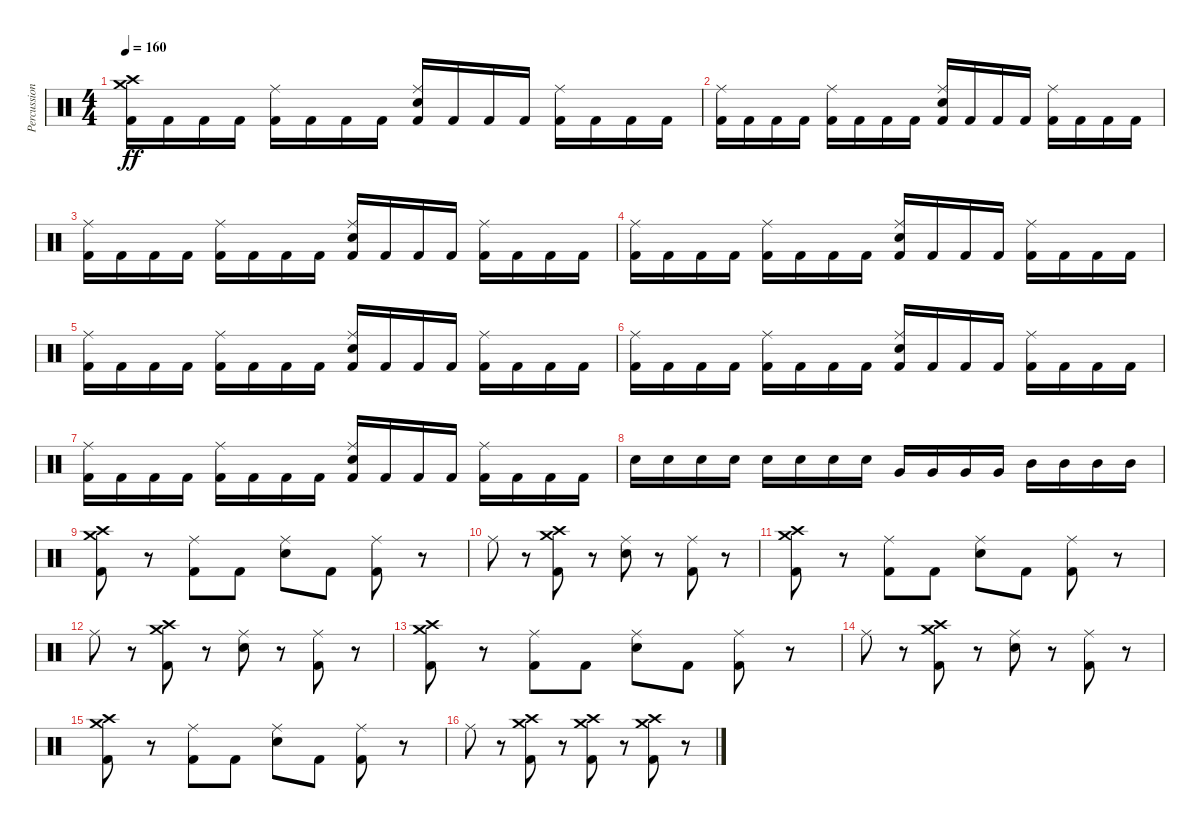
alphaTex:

\track ("Percussion" "Percussion") {instrument percussion}
\staff {score}
\articulation defaults
\ts (4 4)
\tempo 160
\clef neutral
\ks c
("Kick (hit) 2" "Crash high (hit)" "Crash medium (hit)").16{dy ff} "Kick (hit) 2".16 "Kick (hit) 2".16 "Kick (hit) 2".16 ("Kick (hit) 2" "Ride (middle)").16 "Kick (hit) 2".16 "Kick (hit) 2".16 "Kick (hit) 2".16 ("Kick (hit) 2" "Electric Snare (hit)" "Ride (middle)").16 "Kick (hit) 2".16 "Kick (hit) 2".16 "Kick (hit) 2".16 ("Kick (hit) 2" "Ride (middle)").16 "Kick (hit) 2".16 "Kick (hit) 2".16 "Kick (hit) 2".16 |
("Kick (hit) 2" "Ride (middle)").16 "Kick (hit) 2".16 "Kick (hit) 2".16 "Kick (hit) 2".16 ("Kick (hit) 2" "Ride (middle)").16 "Kick (hit) 2".16 "Kick (hit) 2".16 "Kick (hit) 2".16 ("Kick (hit) 2" "Electric Snare (hit)" "Ride (middle)").16 "Kick (hit) 2".16 "Kick (hit) 2".16 "Kick (hit) 2".16 ("Kick (hit) 2" "Ride (middle)").16 "Kick (hit) 2".16 "Kick (hit) 2".16 "Kick (hit) 2".16 |
("Kick (hit) 2" "Ride (middle)").16 "Kick (hit) 2".16 "Kick (hit) 2".16 "Kick (hit) 2".16 ("Kick (hit) 2" "Ride (middle)").16 "Kick (hit) 2".16 "Kick (hit) 2".16 "Kick (hit) 2".16 ("Kick (hit) 2" "Electric Snare (hit)" "Ride (middle)").16 "Kick (hit) 2".16 "Kick (hit) 2".16 "Kick (hit) 2".16 ("Kick (hit) 2" "Ride (middle)").16 "Kick (hit) 2".16 "Kick (hit) 2".16 "Kick (hit) 2".16 |
("Kick (hit) 2" "Ride (middle)").16 "Kick (hit) 2".16 "Kick (hit) 2".16 "Kick (hit) 2".16 ("Kick (hit) 2" "Ride (middle)").16 "Kick (hit) 2".16 "Kick (hit) 2".16 "Kick (hit) 2".16 ("Kick (hit) 2" "Electric Snare (hit)" "Ride (middle)").16 "Kick (hit) 2".16 "Kick (hit) 2".16 "Kick (hit) 2".16 ("Kick (hit) 2" "Ride (middle)").16 "Kick (hit) 2".16 "Kick (hit) 2".16 "Kick (hit) 2".16 |
("Kick (hit) 2" "Ride (middle)").16 "Kick (hit) 2".16 "Kick (hit) 2".16 "Kick (hit) 2".16 ("Kick (hit) 2" "Ride (middle)").16 "Kick (hit) 2".16 "Kick (hit) 2".16 "Kick (hit) 2".16 ("Kick (hit) 2" "Electric Snare (hit)" "Ride (middle)").16 "Kick (hit) 2".16 "Kick (hit) 2".16 "Kick (hit) 2".16 ("Kick (hit) 2" "Ride (middle)").16 "Kick (hit) 2".16 "Kick (hit) 2".16 "Kick (hit) 2".16 |
("Kick (hit) 2" "Ride (middle)").16 "Kick (hit) 2".16 "Kick (hit) 2".16 "Kick (hit) 2".16 ("Kick (hit) 2" "Ride (middle)").16 "Kick (hit) 2".16 "Kick (hit) 2".16 "Kick (hit) 2".16 ("Kick (hit) 2" "Electric Snare (hit)" "Ride (middle)").16 "Kick (hit) 2".16 "Kick (hit) 2".16 "Kick (hit) 2".16 ("Kick (hit) 2" "Ride (middle)").16 "Kick (hit) 2".16 "Kick (hit) 2".16 "Kick (hit) 2".16 |
("Kick (hit) 2" "Ride (middle)").16 "Kick (hit) 2".16 "Kick (hit) 2".16 "Kick (hit) 2".16 ("Kick (hit) 2" "Ride (middle)").16 "Kick (hit) 2".16 "Kick (hit) 2".16 "Kick (hit) 2".16 ("Kick (hit) 2" "Electric Snare (hit)" "Ride (middle)").16 "Kick (hit) 2".16 "Kick (hit) 2".16 "Kick (hit) 2".16 ("Kick (hit) 2" "Ride (middle)").16 "Kick (hit) 2".16 "Kick (hit) 2".16 "Kick (hit) 2".16 |
"Electric Snare (hit)".16 "Electric Snare (hit)".16 "Electric Snare (hit)".16 "Electric Snare (hit)".16 "Electric Snare (hit)".16 "Electric Snare (hit)".16 "Electric Snare (hit)".16 "Electric Snare (hit)".16 "Very Low Tom (hit)".16 "Very Low Tom (hit)".16 "Very Low Tom (hit)".16 "Very Low Tom (hit)".16 "Mid Tom (hit)".16 "Mid Tom (hit)".16 "Mid Tom (hit)".16 "Mid Tom (hit)".16 |
("Kick (hit) 2" "Crash high (hit)" "Crash medium (hit)").8 r.8 ("Kick (hit) 2" "Ride (middle)").8 "Kick (hit) 2".8 ("Electric Snare (hit)" "Ride (middle)").8 "Kick (hit) 2".8 ("Kick (hit) 2" "Ride (middle)").8 r.8 |
"Ride (middle)".8 r.8 ("Kick (hit) 2" "Crash high (hit)" "Crash medium (hit)").8 r.8 ("Electric Snare (hit)" "Ride (middle)").8 r.8 ("Kick (hit) 2" "Ride (middle)").8 r.8 |
("Kick (hit) 2" "Crash high (hit)" "Crash medium (hit)").8 r.8 ("Kick (hit) 2" "Ride (middle)").8 "Kick (hit) 2".8 ("Electric Snare (hit)" "Ride (middle)").8 "Kick (hit) 2".8 ("Kick (hit) 2" "Ride (middle)").8 r.8 |
"Ride (middle)".8 r.8 ("Kick (hit) 2" "Crash high (hit)" "Crash medium (hit)").8 r.8 ("Electric Snare (hit)" "Ride (middle)").8 r.8 ("Kick (hit) 2" "Ride (middle)").8 r.8 |
("Kick (hit) 2" "Crash high (hit)" "Crash medium (hit)").8 r.8 ("Kick (hit) 2" "Ride (middle)").8 "Kick (hit) 2".8 ("Electric Snare (hit)" "Ride (middle)").8 "Kick (hit) 2".8 ("Kick (hit) 2" "Ride (middle)").8 r.8 |
"Ride (middle)".8 r.8 ("Kick (hit) 2" "Crash high (hit)" "Crash medium (hit)").8 r.8 ("Electric Snare (hit)" "Ride (middle)").8 r.8 ("Kick (hit) 2" "Ride (middle)").8 r.8 |
("Kick (hit) 2" "Crash high (hit)" "Crash medium (hit)").8 r.8 ("Kick (hit) 2" "Ride (middle)").8 "Kick (hit) 2".8 ("Electric Snare (hit)" "Ride (middle)").8 "Kick (hit) 2".8 ("Kick (hit) 2" "Ride (middle)").8 r.8 |
"Ride (middle)".8 r.8 ("Kick (hit) 2" "Crash high (hit)" "Crash medium (hit)").8 r.8 ("Kick (hit) 2" "Crash high (hit)" "Crash medium (hit)").8 r.8 ("Kick (hit) 2" "Crash high (hit)" "Crash medium (hit)").8 r.8
